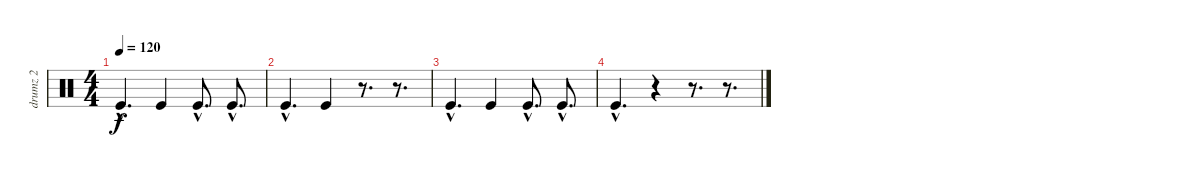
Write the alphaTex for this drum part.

\track ("drumz 2" "drumz 2") {instrument percussion}
\staff {score}
\articulation defaults
\ts (4 4)
\tempo 120
\clef neutral
\ks c "Kick (hit)"{hac}.4{d dy f} "Kick (hit)".4 "Kick (hit)"{hac}.8{d} "Kick (hit)"{hac}.8{d}
|
"Kick (hit)"{hac}.4{d} "Kick (hit)".4 r.8{d} r.8{d} |
"Kick (hit)"{hac}.4{d} "Kick (hit)".4 "Kick (hit)"{hac}.8{d} "Kick (hit)"{hac}.8{d} |
"Kick (hit)"{hac}.4{d} r.4 r.8{d} r.8{d}
